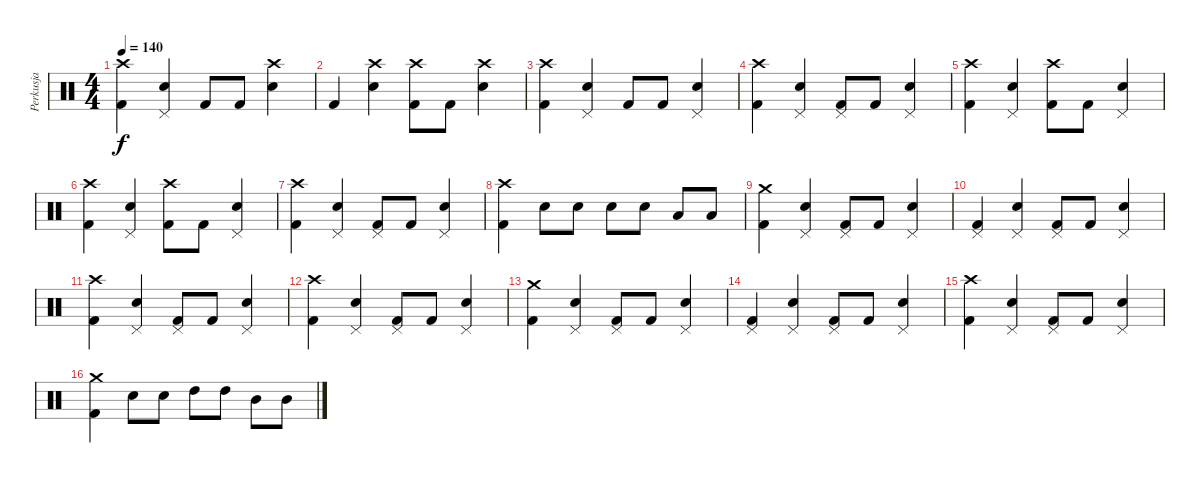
\track ("Perkusja" "Perkusja") {instrument percussion}
\staff {score}
\articulation defaults
\ts (4 4)
\tempo 140
\clef neutral
\ks c
("Crash high (hit)" "Kick (hit) 2").4{dy f} ("Pedal Hi-Hat (hit)" "Snare (hit) 2").4 "Kick (hit) 2".8 "Kick (hit) 2".8 ("Crash high (hit)" "Snare (hit) 2").4 |
"Kick (hit) 2".4 ("Crash high (hit)" "Snare (hit) 2").4 ("Crash high (hit)" "Kick (hit) 2").8 "Kick (hit) 2".8 ("Crash high (hit)" "Snare (hit) 2").4 |
("Crash high (hit)" "Kick (hit) 2").4 ("Pedal Hi-Hat (hit)" "Snare (hit) 2").4 "Kick (hit) 2".8 "Kick (hit) 2".8 ("Pedal Hi-Hat (hit)" "Snare (hit) 2").4 |
("Crash high (hit)" "Kick (hit) 2").4 ("Pedal Hi-Hat (hit)" "Snare (hit) 2").4 ("Pedal Hi-Hat (hit)" "Kick (hit) 2").8 "Kick (hit) 2".8 ("Pedal Hi-Hat (hit)" "Snare (hit) 2").4 |
("Crash high (hit)" "Kick (hit) 2").4 ("Pedal Hi-Hat (hit)" "Snare (hit) 2").4 ("Crash high (hit)" "Kick (hit) 2").8 "Kick (hit) 2".8 ("Pedal Hi-Hat (hit)" "Snare (hit) 2").4 |
("Crash high (hit)" "Kick (hit) 2").4 ("Pedal Hi-Hat (hit)" "Snare (hit) 2").4 ("Crash high (hit)" "Kick (hit) 2").8 "Kick (hit) 2".8 ("Pedal Hi-Hat (hit)" "Snare (hit) 2").4 |
("Crash high (hit)" "Kick (hit) 2").4 ("Pedal Hi-Hat (hit)" "Snare (hit) 2").4 ("Pedal Hi-Hat (hit)" "Kick (hit) 2").8 "Kick (hit) 2".8 ("Pedal Hi-Hat (hit)" "Snare (hit) 2").4 |
("Crash high (hit)" "Kick (hit) 2").4 "Snare (hit) 2".8 "Snare (hit) 2".8 "Snare (hit) 2".8 "Snare (hit) 2".8 "Low Tom (hit)".8 "Low Tom (hit)".8 |
("Crash medium (hit)" "Kick (hit) 2").4 ("Pedal Hi-Hat (hit)" "Snare (hit) 2").4 ("Pedal Hi-Hat (hit)" "Kick (hit) 2").8 "Kick (hit) 2".8 ("Pedal Hi-Hat (hit)" "Snare (hit) 2").4 |
("Pedal Hi-Hat (hit)" "Kick (hit) 2").4 ("Pedal Hi-Hat (hit)" "Snare (hit) 2").4 ("Pedal Hi-Hat (hit)" "Kick (hit) 2").8 "Kick (hit) 2".8 ("Pedal Hi-Hat (hit)" "Snare (hit) 2").4 |
("Crash high (hit)" "Kick (hit) 2").4 ("Pedal Hi-Hat (hit)" "Snare (hit) 2").4 ("Pedal Hi-Hat (hit)" "Kick (hit) 2").8 "Kick (hit) 2".8 ("Pedal Hi-Hat (hit)" "Snare (hit) 2").4 |
("Crash high (hit)" "Kick (hit) 2").4 ("Pedal Hi-Hat (hit)" "Snare (hit) 2").4 ("Pedal Hi-Hat (hit)" "Kick (hit) 2").8 "Kick (hit) 2".8 ("Pedal Hi-Hat (hit)" "Snare (hit) 2").4 |
("Crash medium (hit)" "Kick (hit) 2").4 ("Pedal Hi-Hat (hit)" "Snare (hit) 2").4 ("Pedal Hi-Hat (hit)" "Kick (hit) 2").8 "Kick (hit) 2".8 ("Pedal Hi-Hat (hit)" "Snare (hit) 2").4 |
("Pedal Hi-Hat (hit)" "Kick (hit) 2").4 ("Pedal Hi-Hat (hit)" "Snare (hit) 2").4 ("Pedal Hi-Hat (hit)" "Kick (hit) 2").8 "Kick (hit) 2".8 ("Pedal Hi-Hat (hit)" "Snare (hit) 2").4 |
("Crash high (hit)" "Kick (hit) 2").4 ("Pedal Hi-Hat (hit)" "Snare (hit) 2").4 ("Pedal Hi-Hat (hit)" "Kick (hit) 2").8 "Kick (hit) 2".8 ("Pedal Hi-Hat (hit)" "Snare (hit) 2").4 |
("Crash medium (hit)" "Kick (hit) 2").4 "Snare (hit) 2".8 "Snare (hit) 2".8 "High Tom (hit)".8 "High Tom (hit)".8 "Mid Tom (hit)".8 "Mid Tom (hit)".8
